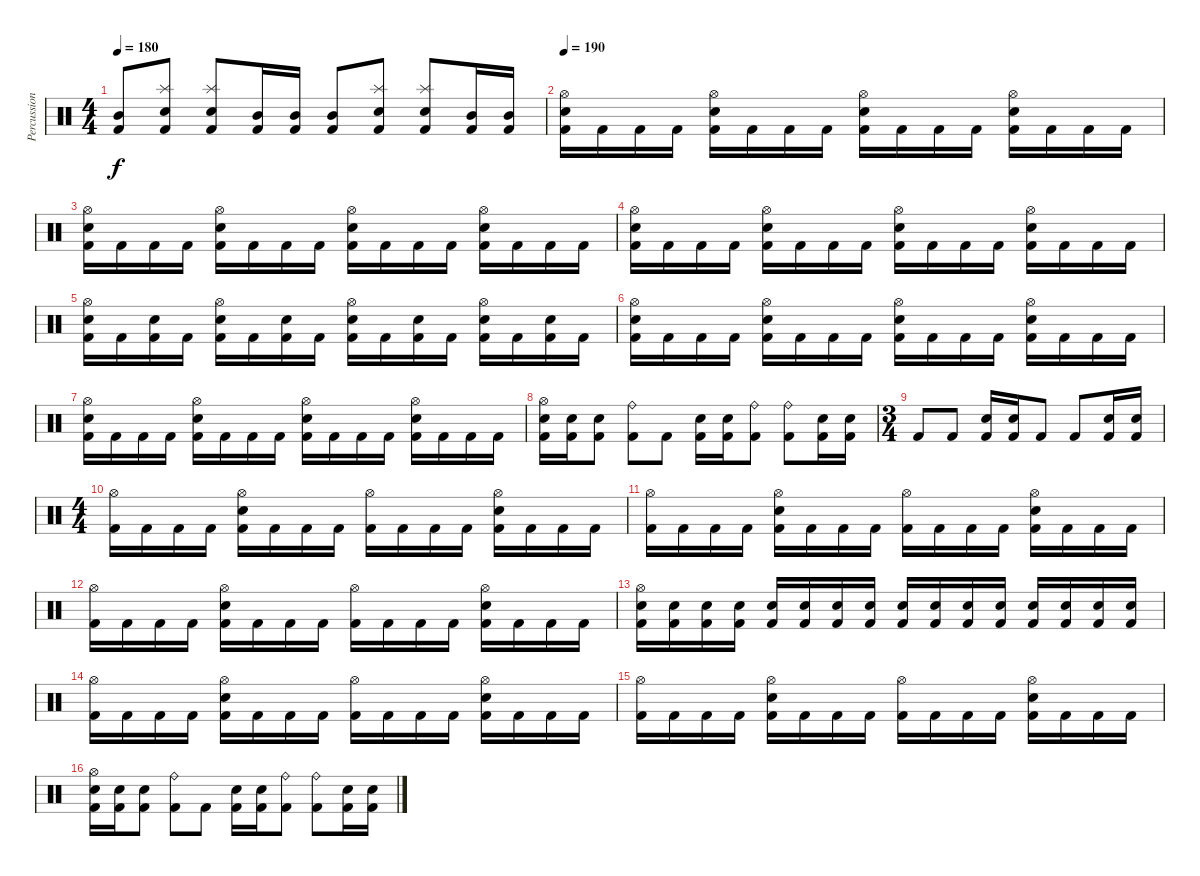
\track ("Percussion" "Percussion") {instrument percussion}
\staff {score}
\articulation defaults
\ts (4 4)
\tempo 180
\clef neutral
\ks c
("Mid Tom (hit)" "Kick (hit) 2").8{dy f} ("Splash (hit)" "Electric Snare (hit)" "Kick (hit) 2").8 ("Splash (hit)" "Electric Snare (hit)" "Kick (hit) 2").8 ("Mid Tom (hit)" "Kick (hit) 2").16 ("Mid Tom (hit)" "Kick (hit) 2").16 ("Mid Tom (hit)" "Kick (hit) 2").8 ("Splash (hit)" "Electric Snare (hit)" "Kick (hit) 2").8 ("Splash (hit)" "Electric Snare (hit)" "Kick (hit) 2").8 ("Mid Tom (hit)" "Kick (hit) 2").16 ("Mid Tom (hit)" "Kick (hit) 2").16 |
\tempo 190
("Hi-Hat (open)" "Electric Snare (hit)" "Kick (hit) 2").16 "Kick (hit) 2".16 "Kick (hit) 2".16 "Kick (hit) 2".16 ("Hi-Hat (open)" "Electric Snare (hit)" "Kick (hit) 2").16 "Kick (hit) 2".16 "Kick (hit) 2".16 "Kick (hit) 2".16 ("Hi-Hat (open)" "Electric Snare (hit)" "Kick (hit) 2").16 "Kick (hit) 2".16 "Kick (hit) 2".16 "Kick (hit) 2".16 ("Hi-Hat (open)" "Electric Snare (hit)" "Kick (hit) 2").16 "Kick (hit) 2".16 "Kick (hit) 2".16 "Kick (hit) 2".16 |
("Hi-Hat (open)" "Electric Snare (hit)" "Kick (hit) 2").16 "Kick (hit) 2".16 "Kick (hit) 2".16 "Kick (hit) 2".16 ("Hi-Hat (open)" "Electric Snare (hit)" "Kick (hit) 2").16 "Kick (hit) 2".16 "Kick (hit) 2".16 "Kick (hit) 2".16 ("Hi-Hat (open)" "Electric Snare (hit)" "Kick (hit) 2").16 "Kick (hit) 2".16 "Kick (hit) 2".16 "Kick (hit) 2".16 ("Hi-Hat (open)" "Electric Snare (hit)" "Kick (hit) 2").16 "Kick (hit) 2".16 "Kick (hit) 2".16 "Kick (hit) 2".16 |
("Hi-Hat (open)" "Electric Snare (hit)" "Kick (hit) 2").16 "Kick (hit) 2".16 "Kick (hit) 2".16 "Kick (hit) 2".16 ("Hi-Hat (open)" "Electric Snare (hit)" "Kick (hit) 2").16 "Kick (hit) 2".16 "Kick (hit) 2".16 "Kick (hit) 2".16 ("Hi-Hat (open)" "Electric Snare (hit)" "Kick (hit) 2").16 "Kick (hit) 2".16 "Kick (hit) 2".16 "Kick (hit) 2".16 ("Hi-Hat (open)" "Electric Snare (hit)" "Kick (hit) 2").16 "Kick (hit) 2".16 "Kick (hit) 2".16 "Kick (hit) 2".16 |
("Hi-Hat (open)" "Electric Snare (hit)" "Kick (hit) 2").16 "Kick (hit) 2".16 ("Electric Snare (hit)" "Kick (hit) 2").16 "Kick (hit) 2".16 ("Hi-Hat (open)" "Electric Snare (hit)" "Kick (hit) 2").16 "Kick (hit) 2".16 ("Electric Snare (hit)" "Kick (hit) 2").16 "Kick (hit) 2".16 ("Hi-Hat (open)" "Electric Snare (hit)" "Kick (hit) 2").16 "Kick (hit) 2".16 ("Electric Snare (hit)" "Kick (hit) 2").16 "Kick (hit) 2".16 ("Hi-Hat (open)" "Electric Snare (hit)" "Kick (hit) 2").16 "Kick (hit) 2".16 ("Electric Snare (hit)" "Kick (hit) 2").16 "Kick (hit) 2".16 |
("Hi-Hat (open)" "Electric Snare (hit)" "Kick (hit) 2").16 "Kick (hit) 2".16 "Kick (hit) 2".16 "Kick (hit) 2".16 ("Hi-Hat (open)" "Electric Snare (hit)" "Kick (hit) 2").16 "Kick (hit) 2".16 "Kick (hit) 2".16 "Kick (hit) 2".16 ("Hi-Hat (open)" "Electric Snare (hit)" "Kick (hit) 2").16 "Kick (hit) 2".16 "Kick (hit) 2".16 "Kick (hit) 2".16 ("Hi-Hat (open)" "Electric Snare (hit)" "Kick (hit) 2").16 "Kick (hit) 2".16 "Kick (hit) 2".16 "Kick (hit) 2".16 |
("Hi-Hat (open)" "Electric Snare (hit)" "Kick (hit) 2").16 "Kick (hit) 2".16 "Kick (hit) 2".16 "Kick (hit) 2".16 ("Hi-Hat (open)" "Electric Snare (hit)" "Kick (hit) 2").16 "Kick (hit) 2".16 "Kick (hit) 2".16 "Kick (hit) 2".16 ("Hi-Hat (open)" "Electric Snare (hit)" "Kick (hit) 2").16 "Kick (hit) 2".16 "Kick (hit) 2".16 "Kick (hit) 2".16 ("Hi-Hat (open)" "Electric Snare (hit)" "Kick (hit) 2").16 "Kick (hit) 2".16 "Kick (hit) 2".16 "Kick (hit) 2".16 |
("Hi-Hat (open)" "Electric Snare (hit)" "Kick (hit) 2").16 ("Electric Snare (hit)" "Kick (hit) 2").16 ("Electric Snare (hit)" "Kick (hit) 2").8 ("Ride (bell)" "Kick (hit) 2").8 "Kick (hit) 2".8 ("Electric Snare (hit)" "Kick (hit) 2").16 ("Electric Snare (hit)" "Kick (hit) 2").16 ("Ride (bell)" "Kick (hit) 2").8 ("Ride (bell)" "Kick (hit) 2").8 ("Electric Snare (hit)" "Kick (hit) 2").16 ("Electric Snare (hit)" "Kick (hit) 2").16 |
\ts (3 4)
"Kick (hit) 2".8 "Kick (hit) 2".8 ("Electric Snare (hit)" "Kick (hit) 2").16 ("Electric Snare (hit)" "Kick (hit) 2").16 "Kick (hit) 2".8 "Kick (hit) 2".8 ("Electric Snare (hit)" "Kick (hit) 2").16 ("Electric Snare (hit)" "Kick (hit) 2").16 |
\ts (4 4)
("Hi-Hat (open)" "Kick (hit) 2").16 "Kick (hit) 2".16 "Kick (hit) 2".16 "Kick (hit) 2".16 ("Hi-Hat (open)" "Electric Snare (hit)" "Kick (hit) 2").16 "Kick (hit) 2".16 "Kick (hit) 2".16 "Kick (hit) 2".16 ("Hi-Hat (open)" "Kick (hit) 2").16 "Kick (hit) 2".16 "Kick (hit) 2".16 "Kick (hit) 2".16 ("Hi-Hat (open)" "Electric Snare (hit)" "Kick (hit) 2").16 "Kick (hit) 2".16 "Kick (hit) 2".16 "Kick (hit) 2".16 |
("Hi-Hat (open)" "Kick (hit) 2").16 "Kick (hit) 2".16 "Kick (hit) 2".16 "Kick (hit) 2".16 ("Hi-Hat (open)" "Electric Snare (hit)" "Kick (hit) 2").16 "Kick (hit) 2".16 "Kick (hit) 2".16 "Kick (hit) 2".16 ("Hi-Hat (open)" "Kick (hit) 2").16 "Kick (hit) 2".16 "Kick (hit) 2".16 "Kick (hit) 2".16 ("Hi-Hat (open)" "Electric Snare (hit)" "Kick (hit) 2").16 "Kick (hit) 2".16 "Kick (hit) 2".16 "Kick (hit) 2".16 |
("Hi-Hat (open)" "Kick (hit) 2").16 "Kick (hit) 2".16 "Kick (hit) 2".16 "Kick (hit) 2".16 ("Hi-Hat (open)" "Electric Snare (hit)" "Kick (hit) 2").16 "Kick (hit) 2".16 "Kick (hit) 2".16 "Kick (hit) 2".16 ("Hi-Hat (open)" "Kick (hit) 2").16 "Kick (hit) 2".16 "Kick (hit) 2".16 "Kick (hit) 2".16 ("Hi-Hat (open)" "Electric Snare (hit)" "Kick (hit) 2").16 "Kick (hit) 2".16 "Kick (hit) 2".16 "Kick (hit) 2".16 |
("Hi-Hat (open)" "Electric Snare (hit)" "Kick (hit) 2").16 ("Electric Snare (hit)" "Kick (hit) 2").16 ("Electric Snare (hit)" "Kick (hit) 2").16 ("Electric Snare (hit)" "Kick (hit) 2").16 ("Electric Snare (hit)" "Kick (hit) 2").16 ("Electric Snare (hit)" "Kick (hit) 2").16 ("Electric Snare (hit)" "Kick (hit) 2").16 ("Electric Snare (hit)" "Kick (hit) 2").16 ("Electric Snare (hit)" "Kick (hit) 2").16 ("Electric Snare (hit)" "Kick (hit) 2").16 ("Electric Snare (hit)" "Kick (hit) 2").16 ("Electric Snare (hit)" "Kick (hit) 2").16 ("Electric Snare (hit)" "Kick (hit) 2").16 ("Electric Snare (hit)" "Kick (hit) 2").16 ("Electric Snare (hit)" "Kick (hit) 2").16 ("Electric Snare (hit)" "Kick (hit) 2").16 |
("Hi-Hat (open)" "Kick (hit) 2").16 "Kick (hit) 2".16 "Kick (hit) 2".16 "Kick (hit) 2".16 ("Hi-Hat (open)" "Electric Snare (hit)" "Kick (hit) 2").16 "Kick (hit) 2".16 "Kick (hit) 2".16 "Kick (hit) 2".16 ("Hi-Hat (open)" "Kick (hit) 2").16 "Kick (hit) 2".16 "Kick (hit) 2".16 "Kick (hit) 2".16 ("Hi-Hat (open)" "Electric Snare (hit)" "Kick (hit) 2").16 "Kick (hit) 2".16 "Kick (hit) 2".16 "Kick (hit) 2".16 |
("Hi-Hat (open)" "Kick (hit) 2").16 "Kick (hit) 2".16 "Kick (hit) 2".16 "Kick (hit) 2".16 ("Hi-Hat (open)" "Electric Snare (hit)" "Kick (hit) 2").16 "Kick (hit) 2".16 "Kick (hit) 2".16 "Kick (hit) 2".16 ("Hi-Hat (open)" "Kick (hit) 2").16 "Kick (hit) 2".16 "Kick (hit) 2".16 "Kick (hit) 2".16 ("Hi-Hat (open)" "Electric Snare (hit)" "Kick (hit) 2").16 "Kick (hit) 2".16 "Kick (hit) 2".16 "Kick (hit) 2".16 |
("Hi-Hat (open)" "Electric Snare (hit)" "Kick (hit) 2").16 ("Electric Snare (hit)" "Kick (hit) 2").16 ("Electric Snare (hit)" "Kick (hit) 2").8 ("Ride (bell)" "Kick (hit) 2").8 "Kick (hit) 2".8 ("Electric Snare (hit)" "Kick (hit) 2").16 ("Electric Snare (hit)" "Kick (hit) 2").16 ("Ride (bell)" "Kick (hit) 2").8 ("Ride (bell)" "Kick (hit) 2").8 ("Electric Snare (hit)" "Kick (hit) 2").16 ("Electric Snare (hit)" "Kick (hit) 2").16
